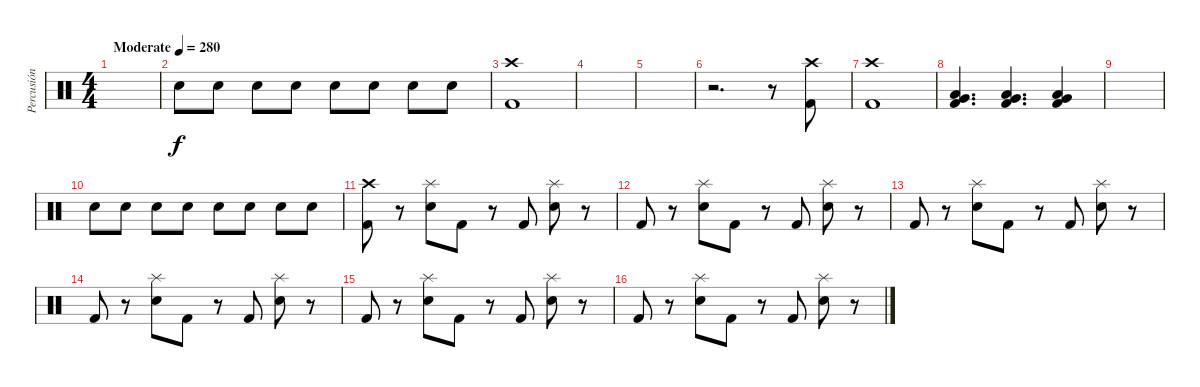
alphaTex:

\track ("Percusión" "Percusión") {instrument percussion}
\staff {score}
\articulation defaults
\ts (4 4)
\tempo (280 "Moderate")
\clef neutral
\ks c
|
"Snare (hit) 2".8 "Snare (hit) 2".8 "Snare (hit) 2".8 "Snare (hit) 2".8 "Snare (hit) 2".8 "Snare (hit) 2".8 "Snare (hit) 2".8 "Snare (hit) 2".8 |
("Crash high (hit)" "Kick (hit) 2").1 |
|
|
r.2{d} r.8 ("Crash high (hit)" "Kick (hit) 2").8 |
("Crash high (hit)" "Kick (hit) 2").1 |
("Very Low Tom (hit)" "Low Tom (hit)" "Kick (hit) 2").4{d} ("Very Low Tom (hit)" "Low Tom (hit)" "Kick (hit) 2").4{d} ("Very Low Tom (hit)" "Low Tom (hit)" "Kick (hit) 2").4 |
|
"Snare (hit) 2".8 "Snare (hit) 2".8 "Snare (hit) 2".8 "Snare (hit) 2".8 "Snare (hit) 2".8 "Snare (hit) 2".8 "Snare (hit) 2".8 "Snare (hit) 2".8 |
("Crash high (hit)" "Kick (hit) 2").8 r.8 ("Snare (hit) 2" "Splash (hit)").8 "Kick (hit) 2".8 r.8 "Kick (hit) 2".8 ("Snare (hit) 2" "Splash (hit)").8 r.8 |
"Kick (hit) 2".8 r.8 ("Snare (hit) 2" "Splash (hit)").8 "Kick (hit) 2".8 r.8 "Kick (hit) 2".8 ("Snare (hit) 2" "Splash (hit)").8 r.8 |
"Kick (hit) 2".8 r.8 ("Snare (hit) 2" "Splash (hit)").8 "Kick (hit) 2".8 r.8 "Kick (hit) 2".8 ("Snare (hit) 2" "Splash (hit)").8 r.8 |
"Kick (hit) 2".8 r.8 ("Snare (hit) 2" "Splash (hit)").8 "Kick (hit) 2".8 r.8 "Kick (hit) 2".8 ("Snare (hit) 2" "Splash (hit)").8 r.8 |
"Kick (hit) 2".8 r.8 ("Snare (hit) 2" "Splash (hit)").8 "Kick (hit) 2".8 r.8 "Kick (hit) 2".8 ("Snare (hit) 2" "Splash (hit)").8 r.8 |
"Kick (hit) 2".8 r.8 ("Snare (hit) 2" "Splash (hit)").8 "Kick (hit) 2".8 r.8 "Kick (hit) 2".8 ("Snare (hit) 2" "Splash (hit)").8 r.8
